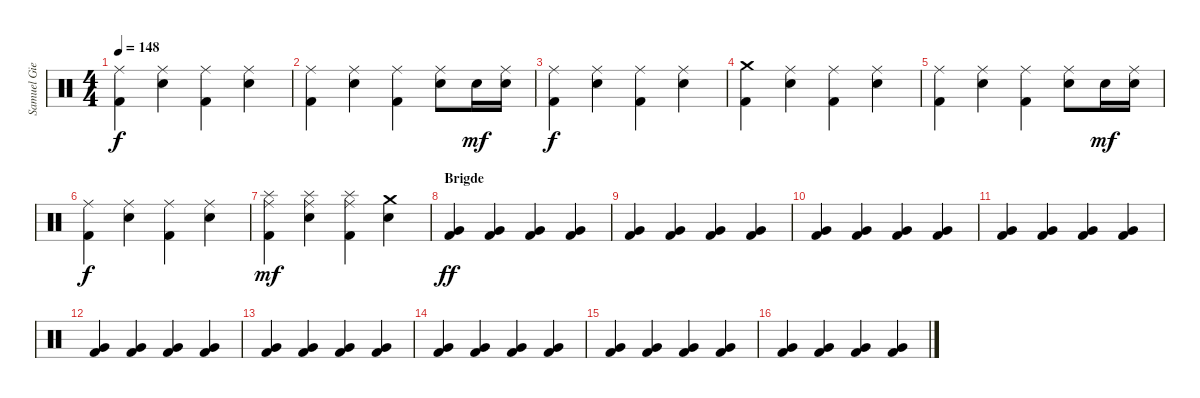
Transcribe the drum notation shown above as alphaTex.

\track ("Samuel Giers - Drum" "Samuel Gie") {instrument percussion}
\staff {score}
\articulation defaults
\ts (4 4)
\tempo 148
\clef neutral
\ks c
("Ride (middle)" "Kick (hit) 2").4{dy f} ("Ride (middle)" "Snare (hit) 2").4 ("Ride (middle)" "Kick (hit) 2").4 ("Ride (middle)" "Snare (hit) 2").4 |
("Ride (middle)" "Kick (hit) 2").4 ("Ride (middle)" "Snare (hit) 2").4 ("Ride (middle)" "Kick (hit) 2").4 ("Ride (middle)" "Snare (hit) 2").8 "Snare (hit) 2".16{dy mf} ("Ride (middle)" "Snare (hit) 2").16 |
("Ride (middle)" "Kick (hit) 2").4{dy f} ("Ride (middle)" "Snare (hit) 2").4 ("Ride (middle)" "Kick (hit) 2").4 ("Ride (middle)" "Snare (hit) 2").4 |
("Crash medium (hit)" "Kick (hit) 2").4 ("Ride (middle)" "Snare (hit) 2").4 ("Ride (middle)" "Kick (hit) 2").4 ("Ride (middle)" "Snare (hit) 2").4 |
("Ride (middle)" "Kick (hit) 2").4 ("Ride (middle)" "Snare (hit) 2").4 ("Ride (middle)" "Kick (hit) 2").4 ("Ride (middle)" "Snare (hit) 2").8 "Snare (hit) 2".16{dy mf} ("Ride (middle)" "Snare (hit) 2").16 |
("Ride (middle)" "Kick (hit) 2").4{dy f} ("Ride (middle)" "Snare (hit) 2").4 ("Ride (middle)" "Kick (hit) 2").4 ("Ride (middle)" "Snare (hit) 2").4 |
("Ride (middle)" "Splash (hit)" "Kick (hit) 2").4{dy mf} ("Ride (middle)" "Splash (hit)" "Snare (hit) 2").4 ("Ride (middle)" "Splash (hit)" "Kick (hit) 2").4 ("Crash medium (hit)" "Snare (hit) 2").4 |
\section ("" "Brigde")
("Very Low Tom (hit)" "Kick (hit) 2").4{dy ff} ("Very Low Tom (hit)" "Kick (hit) 2").4 ("Very Low Tom (hit)" "Kick (hit) 2").4 ("Very Low Tom (hit)" "Kick (hit) 2").4 |
("Very Low Tom (hit)" "Kick (hit) 2").4 ("Very Low Tom (hit)" "Kick (hit) 2").4 ("Very Low Tom (hit)" "Kick (hit) 2").4 ("Very Low Tom (hit)" "Kick (hit) 2").4 |
("Very Low Tom (hit)" "Kick (hit) 2").4 ("Very Low Tom (hit)" "Kick (hit) 2").4 ("Very Low Tom (hit)" "Kick (hit) 2").4 ("Very Low Tom (hit)" "Kick (hit) 2").4 |
("Very Low Tom (hit)" "Kick (hit) 2").4 ("Very Low Tom (hit)" "Kick (hit) 2").4 ("Very Low Tom (hit)" "Kick (hit) 2").4 ("Very Low Tom (hit)" "Kick (hit) 2").4 |
("Very Low Tom (hit)" "Kick (hit) 2").4 ("Very Low Tom (hit)" "Kick (hit) 2").4 ("Very Low Tom (hit)" "Kick (hit) 2").4 ("Very Low Tom (hit)" "Kick (hit) 2").4 |
("Very Low Tom (hit)" "Kick (hit) 2").4 ("Very Low Tom (hit)" "Kick (hit) 2").4 ("Very Low Tom (hit)" "Kick (hit) 2").4 ("Very Low Tom (hit)" "Kick (hit) 2").4 |
("Very Low Tom (hit)" "Kick (hit) 2").4 ("Very Low Tom (hit)" "Kick (hit) 2").4 ("Very Low Tom (hit)" "Kick (hit) 2").4 ("Very Low Tom (hit)" "Kick (hit) 2").4 |
("Very Low Tom (hit)" "Kick (hit) 2").4 ("Very Low Tom (hit)" "Kick (hit) 2").4 ("Very Low Tom (hit)" "Kick (hit) 2").4 ("Very Low Tom (hit)" "Kick (hit) 2").4 |
("Very Low Tom (hit)" "Kick (hit) 2").4 ("Very Low Tom (hit)" "Kick (hit) 2").4 ("Very Low Tom (hit)" "Kick (hit) 2").4 ("Very Low Tom (hit)" "Kick (hit) 2").4
